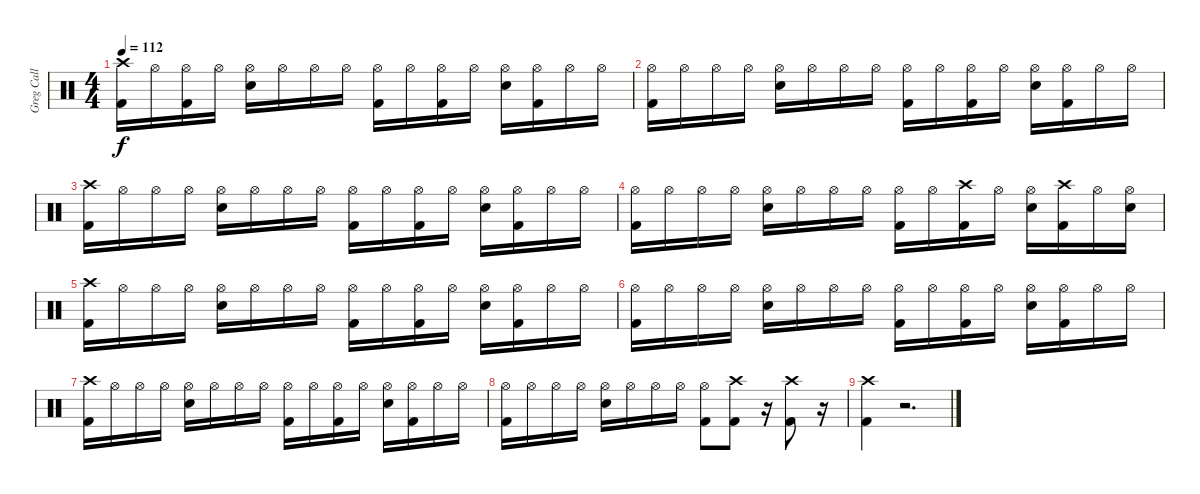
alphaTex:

\track ("Greg Call (Drums)" "Greg Call ") {instrument percussion}
\staff {score}
\articulation defaults
\ts (4 4)
\tempo 112
\clef neutral
\ks c
("Crash high (hit)" "Kick (hit) 2").16{dy f} "Hi-Hat (open)".16 ("Hi-Hat (open)" "Kick (hit) 2").16 "Hi-Hat (open)".16 ("Hi-Hat (open)" "Snare (hit) 2").16 "Hi-Hat (open)".16 "Hi-Hat (open)".16 "Hi-Hat (open)".16 ("Hi-Hat (open)" "Kick (hit) 2").16 "Hi-Hat (open)".16 ("Hi-Hat (open)" "Kick (hit) 2").16 "Hi-Hat (open)".16 ("Hi-Hat (open)" "Snare (hit) 2").16 ("Hi-Hat (open)" "Kick (hit) 2").16 "Hi-Hat (open)".16 "Hi-Hat (open)".16 |
("Hi-Hat (open)" "Kick (hit) 2").16 "Hi-Hat (open)".16 "Hi-Hat (open)".16 "Hi-Hat (open)".16 ("Hi-Hat (open)" "Snare (hit) 2").16 "Hi-Hat (open)".16 "Hi-Hat (open)".16 "Hi-Hat (open)".16 ("Hi-Hat (open)" "Kick (hit) 2").16 "Hi-Hat (open)".16 ("Hi-Hat (open)" "Kick (hit) 2").16 "Hi-Hat (open)".16 ("Hi-Hat (open)" "Snare (hit) 2").16 ("Hi-Hat (open)" "Kick (hit) 2").16 "Hi-Hat (open)".16 "Hi-Hat (open)".16 |
("Crash high (hit)" "Kick (hit) 2").16 "Hi-Hat (open)".16 "Hi-Hat (open)".16 "Hi-Hat (open)".16 ("Hi-Hat (open)" "Snare (hit) 2").16 "Hi-Hat (open)".16 "Hi-Hat (open)".16 "Hi-Hat (open)".16 ("Hi-Hat (open)" "Kick (hit) 2").16 "Hi-Hat (open)".16 ("Hi-Hat (open)" "Kick (hit) 2").16 "Hi-Hat (open)".16 ("Hi-Hat (open)" "Snare (hit) 2").16 ("Hi-Hat (open)" "Kick (hit) 2").16 "Hi-Hat (open)".16 "Hi-Hat (open)".16 |
("Hi-Hat (open)" "Kick (hit) 2").16 "Hi-Hat (open)".16 "Hi-Hat (open)".16 "Hi-Hat (open)".16 ("Hi-Hat (open)" "Snare (hit) 2").16 "Hi-Hat (open)".16 "Hi-Hat (open)".16 "Hi-Hat (open)".16 ("Hi-Hat (open)" "Kick (hit) 2").16 "Hi-Hat (open)".16 ("Crash high (hit)" "Kick (hit) 2").16 "Hi-Hat (open)".16 ("Hi-Hat (open)" "Snare (hit) 2").16 ("Crash high (hit)" "Kick (hit) 2").16 "Hi-Hat (open)".16 ("Hi-Hat (open)" "Snare (hit) 2").16 |
("Crash high (hit)" "Kick (hit) 2").16 "Hi-Hat (open)".16 "Hi-Hat (open)".16 "Hi-Hat (open)".16 ("Hi-Hat (open)" "Snare (hit) 2").16 "Hi-Hat (open)".16 "Hi-Hat (open)".16 "Hi-Hat (open)".16 ("Hi-Hat (open)" "Kick (hit) 2").16 "Hi-Hat (open)".16 ("Hi-Hat (open)" "Kick (hit) 2").16 "Hi-Hat (open)".16 ("Hi-Hat (open)" "Snare (hit) 2").16 ("Hi-Hat (open)" "Kick (hit) 2").16 "Hi-Hat (open)".16 "Hi-Hat (open)".16 |
("Hi-Hat (open)" "Kick (hit) 2").16 "Hi-Hat (open)".16 "Hi-Hat (open)".16 "Hi-Hat (open)".16 ("Hi-Hat (open)" "Snare (hit) 2").16 "Hi-Hat (open)".16 "Hi-Hat (open)".16 "Hi-Hat (open)".16 ("Hi-Hat (open)" "Kick (hit) 2").16 "Hi-Hat (open)".16 ("Hi-Hat (open)" "Kick (hit) 2").16 "Hi-Hat (open)".16 ("Hi-Hat (open)" "Snare (hit) 2").16 ("Hi-Hat (open)" "Kick (hit) 2").16 "Hi-Hat (open)".16 "Hi-Hat (open)".16 |
("Crash high (hit)" "Kick (hit) 2").16 "Hi-Hat (open)".16 "Hi-Hat (open)".16 "Hi-Hat (open)".16 ("Hi-Hat (open)" "Snare (hit) 2").16 "Hi-Hat (open)".16 "Hi-Hat (open)".16 "Hi-Hat (open)".16 ("Hi-Hat (open)" "Kick (hit) 2").16 "Hi-Hat (open)".16 ("Hi-Hat (open)" "Kick (hit) 2").16 "Hi-Hat (open)".16 ("Hi-Hat (open)" "Snare (hit) 2").16 ("Hi-Hat (open)" "Kick (hit) 2").16 "Hi-Hat (open)".16 "Hi-Hat (open)".16 |
("Hi-Hat (open)" "Kick (hit) 2").16 "Hi-Hat (open)".16 "Hi-Hat (open)".16 "Hi-Hat (open)".16 ("Hi-Hat (open)" "Snare (hit) 2").16 "Hi-Hat (open)".16 "Hi-Hat (open)".16 "Hi-Hat (open)".16 ("Hi-Hat (open)" "Kick (hit) 2").8 ("Crash high (hit)" "Kick (hit) 2").8 r.16 ("Crash high (hit)" "Kick (hit) 2").8 r.16 |
("Crash high (hit)" "Kick (hit) 2").4 r.2{d}
